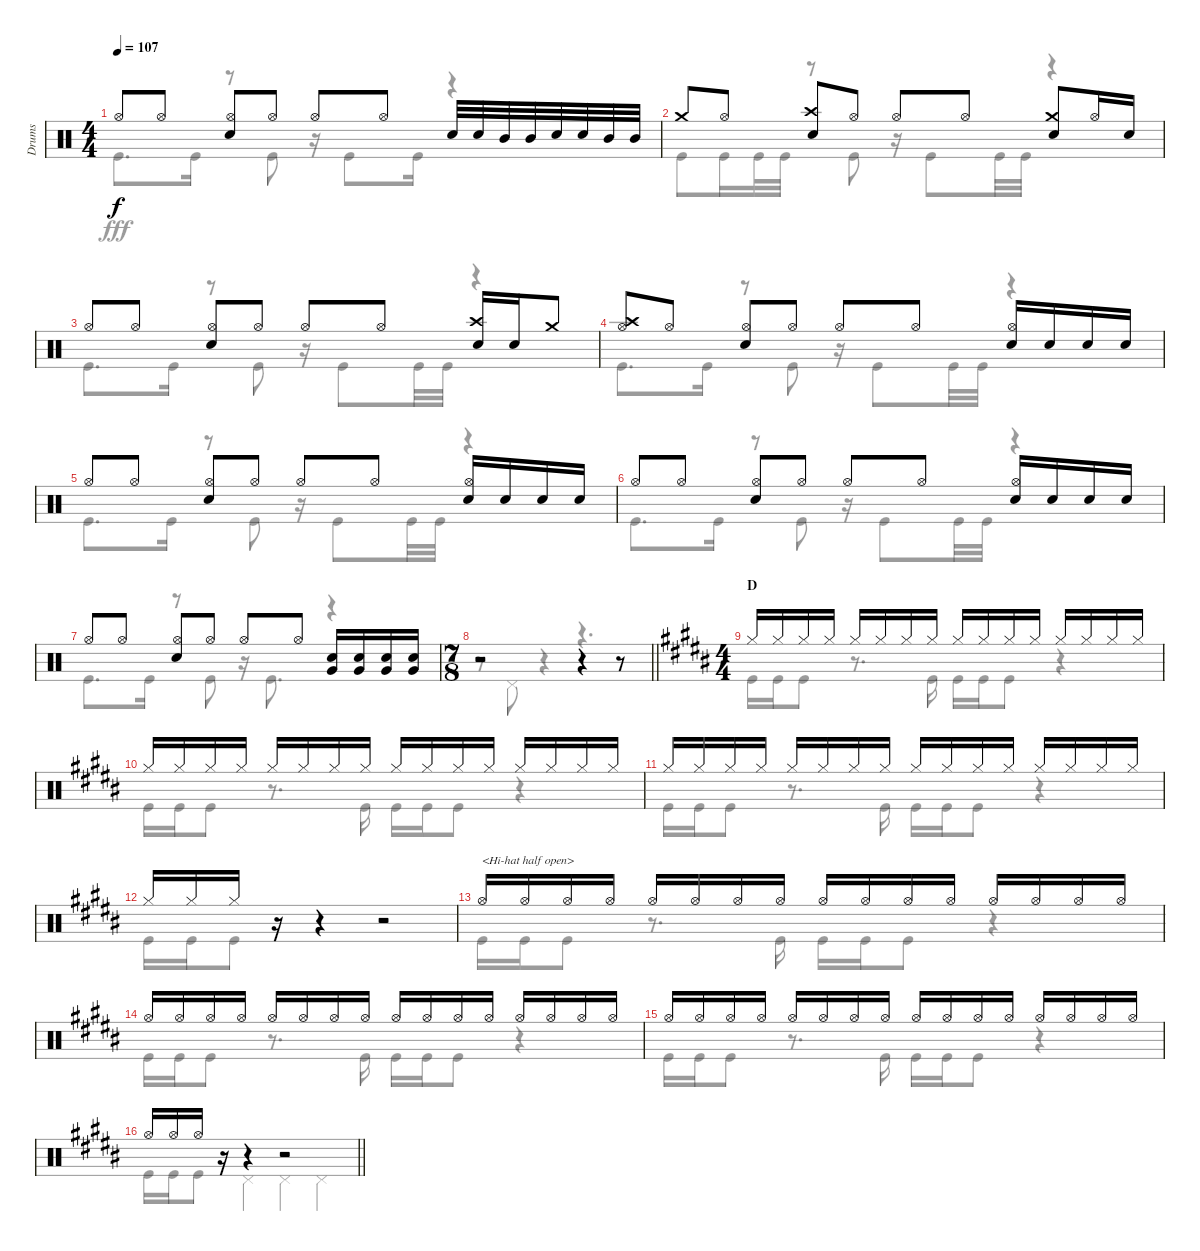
\track ("Drums" "Drums") {instrument percussion}
\staff {score}
\articulation defaults
\voice
\ts (4 4)
\tempo 107
\clef neutral
\ks c "Hi-Hat (open)".8{dy f} "Hi-Hat (open)".8
("Hi-Hat (open)" "Snare (hit) 2").8 "Hi-Hat (open)".8 "Hi-Hat (open)".8 "Hi-Hat (open)".8 "Snare (hit) 2".32 "Snare (hit) 2".32 "Mid Tom (hit)".32 "Mid Tom (hit)".32 "Snare (hit) 2".32 "Snare (hit) 2".32 "Mid Tom (hit)".32 "Mid Tom (hit)".32 |
"Crash medium (hit)".8 "Hi-Hat (open)".8 ("Crash high (hit)" "Snare (hit) 2").8 "Hi-Hat (open)".8 "Hi-Hat (open)".8 "Hi-Hat (open)".8 ("Crash medium (hit)" "Snare (hit) 2").8 "Hi-Hat (open)".16 "Snare (hit) 2".16 |
"Hi-Hat (open)".8 "Hi-Hat (open)".8 ("Hi-Hat (open)" "Snare (hit) 2").8 "Hi-Hat (open)".8 "Hi-Hat (open)".8 "Hi-Hat (open)".8 ("Crash high (hit)" "Snare (hit) 2").16 "Snare (hit) 2".16 "Crash medium (hit)".8 |
("Crash high (hit)" "Hi-Hat (open)").8 "Hi-Hat (open)".8 ("Hi-Hat (open)" "Snare (hit) 2").8 "Hi-Hat (open)".8 "Hi-Hat (open)".8 "Hi-Hat (open)".8 ("Hi-Hat (open)" "Snare (hit) 2").16 "Snare (hit) 2".16 "Snare (hit) 2".16 "Snare (hit) 2".16 |
"Hi-Hat (open)".8 "Hi-Hat (open)".8 ("Hi-Hat (open)" "Snare (hit) 2").8 "Hi-Hat (open)".8 "Hi-Hat (open)".8 "Hi-Hat (open)".8 ("Hi-Hat (open)" "Snare (hit) 2").16 "Snare (hit) 2".16 "Snare (hit) 2".16 "Snare (hit) 2".16 |
"Hi-Hat (open)".8 "Hi-Hat (open)".8 ("Hi-Hat (open)" "Snare (hit) 2").8 "Hi-Hat (open)".8 "Hi-Hat (open)".8 "Hi-Hat (open)".8 ("Hi-Hat (open)" "Snare (hit) 2").16 "Snare (hit) 2".16 "Snare (hit) 2".16 "Snare (hit) 2".16 |
"Hi-Hat (open)".8 "Hi-Hat (open)".8 ("Hi-Hat (open)" "Snare (hit) 2").8 "Hi-Hat (open)".8 "Hi-Hat (open)".8 "Hi-Hat (open)".8 ("Snare (hit) 2" "Very Low Tom (hit)").16 ("Snare (hit) 2" "Very Low Tom (hit)").16 ("Snare (hit) 2" "Very Low Tom (hit)").16 ("Snare (hit) 2" "Very Low Tom (hit)").16 |
\ts (7 8)
\barLineRight lightlight
r.2 r.4 r.8 |
\ts (4 4)
\section ("" "D")
\ks b "Hi-Hat (closed)".16 "Hi-Hat (closed)".16 "Hi-Hat (closed)".16 "Hi-Hat (closed)".16 "Hi-Hat (closed)".16 "Hi-Hat (closed)".16 "Hi-Hat (closed)".16 "Hi-Hat (closed)".16 "Hi-Hat (closed)".16 "Hi-Hat (closed)".16 "Hi-Hat (closed)".16 "Hi-Hat (closed)".16 "Hi-Hat (closed)".16 "Hi-Hat (closed)".16 "Hi-Hat (closed)".16 "Hi-Hat (closed)".16
|
"Hi-Hat (closed)".16 "Hi-Hat (closed)".16 "Hi-Hat (closed)".16 "Hi-Hat (closed)".16 "Hi-Hat (closed)".16 "Hi-Hat (closed)".16 "Hi-Hat (closed)".16 "Hi-Hat (closed)".16 "Hi-Hat (closed)".16 "Hi-Hat (closed)".16 "Hi-Hat (closed)".16 "Hi-Hat (closed)".16 "Hi-Hat (closed)".16 "Hi-Hat (closed)".16 "Hi-Hat (closed)".16 "Hi-Hat (closed)".16 |
"Hi-Hat (closed)".16 "Hi-Hat (closed)".16 "Hi-Hat (closed)".16 "Hi-Hat (closed)".16 "Hi-Hat (closed)".16 "Hi-Hat (closed)".16 "Hi-Hat (closed)".16 "Hi-Hat (closed)".16 "Hi-Hat (closed)".16 "Hi-Hat (closed)".16 "Hi-Hat (closed)".16 "Hi-Hat (closed)".16 "Hi-Hat (closed)".16 "Hi-Hat (closed)".16 "Hi-Hat (closed)".16 "Hi-Hat (closed)".16 |
"Hi-Hat (closed)".16 "Hi-Hat (closed)".16 "Hi-Hat (closed)".16 r.16 r.4 r.2 |
"Hi-Hat (open)".16{txt "<Hi-hat half open>"} "Hi-Hat (open)".16 "Hi-Hat (open)".16 "Hi-Hat (open)".16 "Hi-Hat (open)".16 "Hi-Hat (open)".16 "Hi-Hat (open)".16 "Hi-Hat (open)".16 "Hi-Hat (open)".16 "Hi-Hat (open)".16 "Hi-Hat (open)".16 "Hi-Hat (open)".16 "Hi-Hat (open)".16 "Hi-Hat (open)".16 "Hi-Hat (open)".16 "Hi-Hat (open)".16 |
"Hi-Hat (open)".16 "Hi-Hat (open)".16 "Hi-Hat (open)".16 "Hi-Hat (open)".16 "Hi-Hat (open)".16 "Hi-Hat (open)".16 "Hi-Hat (open)".16 "Hi-Hat (open)".16 "Hi-Hat (open)".16 "Hi-Hat (open)".16 "Hi-Hat (open)".16 "Hi-Hat (open)".16 "Hi-Hat (open)".16 "Hi-Hat (open)".16 "Hi-Hat (open)".16 "Hi-Hat (open)".16 |
"Hi-Hat (open)".16 "Hi-Hat (open)".16 "Hi-Hat (open)".16 "Hi-Hat (open)".16 "Hi-Hat (open)".16 "Hi-Hat (open)".16 "Hi-Hat (open)".16 "Hi-Hat (open)".16 "Hi-Hat (open)".16 "Hi-Hat (open)".16 "Hi-Hat (open)".16 "Hi-Hat (open)".16 "Hi-Hat (open)".16 "Hi-Hat (open)".16 "Hi-Hat (open)".16 "Hi-Hat (open)".16 |
\barLineRight lightlight "Hi-Hat (open)".16 "Hi-Hat (open)".16 "Hi-Hat (open)".16
r.16 r.4 r.2
\voice
\clef neutral
\ottava regular
\simile none
\ks c "Kick (hit)".8{d dy fff} "Kick (hit)".16
r.8 "Kick (hit)".8 r.16 "Kick (hit)".8 "Kick (hit)".16 r.4 |
"Kick (hit)".8 "Kick (hit)".16 "Kick (hit)".32 "Kick (hit)".32 r.8 "Kick (hit)".8 r.16 "Kick (hit)".8 "Kick (hit)".32 "Kick (hit)".32 r.4 |
"Kick (hit)".8{d} "Kick (hit)".16 r.8 "Kick (hit)".8 r.16 "Kick (hit)".8 "Kick (hit)".32 "Kick (hit)".32 r.4 |
"Kick (hit)".8{d} "Kick (hit)".16 r.8 "Kick (hit)".8 r.16 "Kick (hit)".8 "Kick (hit)".32 "Kick (hit)".32 r.4 |
"Kick (hit)".8{d} "Kick (hit)".16 r.8 "Kick (hit)".8 r.16 "Kick (hit)".8 "Kick (hit)".32 "Kick (hit)".32 r.4 |
"Kick (hit)".8{d} "Kick (hit)".16 r.8 "Kick (hit)".8 r.16 "Kick (hit)".8 "Kick (hit)".32 "Kick (hit)".32 r.4 |
"Kick (hit)".8{d} "Kick (hit)".16 r.8 "Kick (hit)".8 r.16 "Kick (hit)".8{d} r.4 |
\barLineRight lightlight
r.8 "Pedal Hi-Hat (hit)".8 r.4 r.4{d} |
\ks b "Kick (hit)".16 "Kick (hit)".16 "Kick (hit)".8
r.8{d} "Kick (hit)".16 "Kick (hit)".16 "Kick (hit)".16 "Kick (hit)".8 r.4 |
"Kick (hit)".16 "Kick (hit)".16 "Kick (hit)".8 r.8{d} "Kick (hit)".16 "Kick (hit)".16 "Kick (hit)".16 "Kick (hit)".8 r.4 |
"Kick (hit)".16 "Kick (hit)".16 "Kick (hit)".8 r.8{d} "Kick (hit)".16 "Kick (hit)".16 "Kick (hit)".16 "Kick (hit)".8 r.4 |
"Kick (hit)".16 "Kick (hit)".16 "Kick (hit)".8 r.4 r.2 |
"Kick (hit)".16 "Kick (hit)".16 "Kick (hit)".8 r.8{d} "Kick (hit)".16 "Kick (hit)".16 "Kick (hit)".16 "Kick (hit)".8 r.4 |
"Kick (hit)".16 "Kick (hit)".16 "Kick (hit)".8 r.8{d} "Kick (hit)".16 "Kick (hit)".16 "Kick (hit)".16 "Kick (hit)".8 r.4 |
"Kick (hit)".16 "Kick (hit)".16 "Kick (hit)".8 r.8{d} "Kick (hit)".16 "Kick (hit)".16 "Kick (hit)".16 "Kick (hit)".8 r.4 |
\barLineRight lightlight "Kick (hit)".16 "Kick (hit)".16 "Kick (hit)".8 "Pedal Hi-Hat (hit)".4 "Pedal Hi-Hat (hit)".4 "Pedal Hi-Hat (hit)".4
